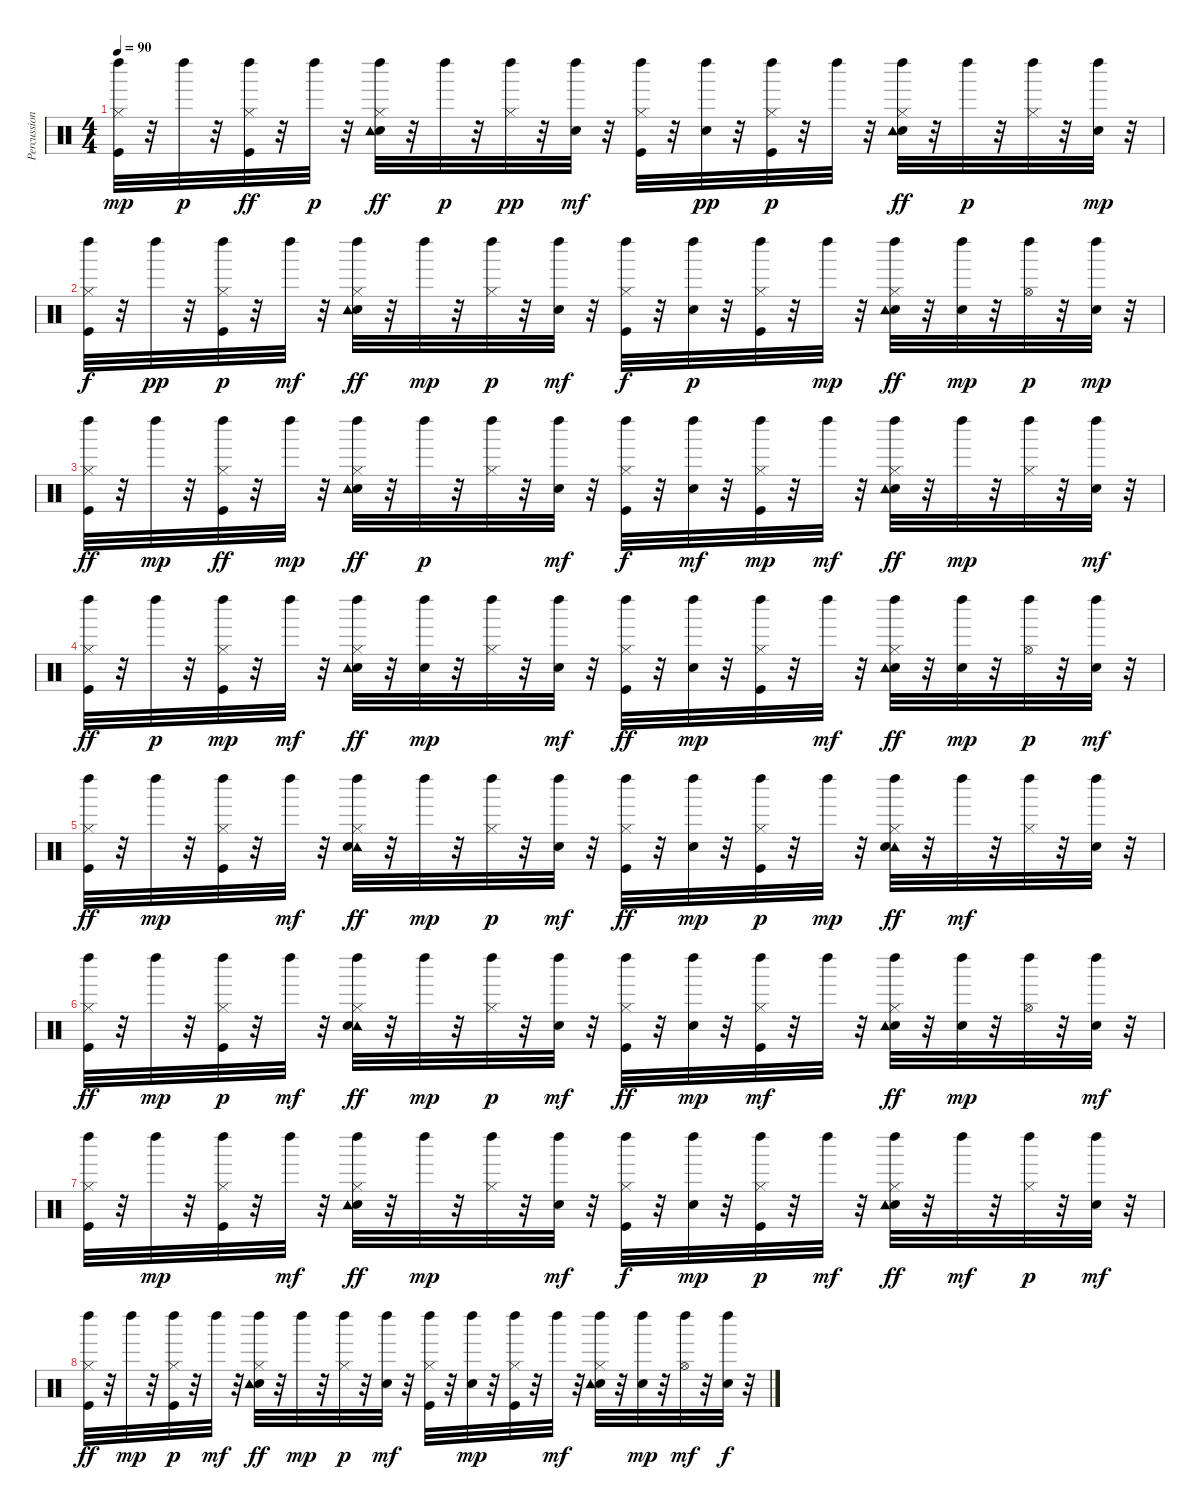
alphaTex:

\track ("Percussions" "Percussion") {instrument percussion}
\staff {score}
\articulation defaults
\ts (4 4)
\tempo 90
\clef neutral
\ks c
("Hi-Hat (closed)" "Kick (hit)" "Left Maraca (hit)").32{dy mp} r.32 "Left Maraca (hit)".32{dy p} r.32 ("Hi-Hat (closed)" "Left Maraca (hit)" "Kick (hit)").32{dy ff} r.32 "Left Maraca (hit)".32{dy p} r.32 ("Electric Snare (hit)" "Tambourine (hit)" "Left Maraca (hit)" "Hi-Hat (closed)").32{dy ff} r.32 "Left Maraca (hit)".32{dy p} r.32 ("Left Maraca (hit)" "Hi-Hat (closed)").32{dy pp} r.32 ("Left Maraca (hit)" "Electric Snare (hit)").32{dy mf} r.32 ("Left Maraca (hit)" "Hi-Hat (closed)" "Kick (hit)").32 r.32 ("Electric Snare (hit)" "Left Maraca (hit)").32{dy pp} r.32 ("Hi-Hat (closed)" "Kick (hit)" "Left Maraca (hit)").32{dy p} r.32 "Left Maraca (hit)".32 r.32 ("Electric Snare (hit)" "Tambourine (hit)" "Hi-Hat (closed)" "Left Maraca (hit)").32{dy ff} r.32 "Left Maraca (hit)".32{dy p} r.32 ("Hi-Hat (closed)" "Left Maraca (hit)").32 r.32 ("Electric Snare (hit)" "Left Maraca (hit)").32{dy mp} r.32 |
("Hi-Hat (closed)" "Kick (hit)" "Left Maraca (hit)").32{dy f} r.32 "Left Maraca (hit)".32{dy pp} r.32 ("Kick (hit)" "Left Maraca (hit)" "Hi-Hat (closed)").32{dy p} r.32 "Left Maraca (hit)".32{dy mf} r.32 ("Electric Snare (hit)" "Tambourine (hit)" "Left Maraca (hit)" "Hi-Hat (closed)").32{dy ff} r.32 "Left Maraca (hit)".32{dy mp} r.32 ("Hi-Hat (closed)" "Left Maraca (hit)").32{dy p} r.32 ("Electric Snare (hit)" "Left Maraca (hit)").32{dy mf} r.32 ("Hi-Hat (closed)" "Kick (hit)" "Left Maraca (hit)").32{dy f} r.32 ("Electric Snare (hit)" "Left Maraca (hit)").32{dy p} r.32 ("Kick (hit)" "Hi-Hat (closed)" "Left Maraca (hit)").32 r.32 "Left Maraca (hit)".32{dy mp} r.32 ("Electric Snare (hit)" "Tambourine (hit)" "Left Maraca (hit)" "Hi-Hat (closed)").32{dy ff} r.32 ("Electric Snare (hit)" "Left Maraca (hit)").32{dy mp} r.32 ("Hi-Hat (open)" "Left Maraca (hit)").32{dy p} r.32 ("Electric Snare (hit)" "Left Maraca (hit)").32{dy mp} r.32 |
("Left Maraca (hit)" "Hi-Hat (closed)" "Kick (hit)").32{dy ff} r.32 "Left Maraca (hit)".32{dy mp} r.32 ("Hi-Hat (closed)" "Left Maraca (hit)" "Kick (hit)").32{dy ff} r.32 "Left Maraca (hit)".32{dy mp} r.32 ("Hi-Hat (closed)" "Electric Snare (hit)" "Tambourine (hit)" "Left Maraca (hit)").32{dy ff} r.32 "Left Maraca (hit)".32{dy p} r.32 ("Hi-Hat (closed)" "Left Maraca (hit)").32 r.32 ("Electric Snare (hit)" "Left Maraca (hit)").32{dy mf} r.32 ("Kick (hit)" "Hi-Hat (closed)" "Left Maraca (hit)").32{dy f} r.32 ("Left Maraca (hit)" "Electric Snare (hit)").32{dy mf} r.32 ("Hi-Hat (closed)" "Kick (hit)" "Left Maraca (hit)").32{dy mp} r.32 "Left Maraca (hit)".32{dy mf} r.32 ("Hi-Hat (closed)" "Electric Snare (hit)" "Tambourine (hit)" "Left Maraca (hit)").32{dy ff} r.32 "Left Maraca (hit)".32{dy mp} r.32 ("Hi-Hat (closed)" "Left Maraca (hit)").32 r.32 ("Electric Snare (hit)" "Left Maraca (hit)").32{dy mf} r.32 |
("Kick (hit)" "Left Maraca (hit)" "Hi-Hat (closed)").32{dy ff} r.32 "Left Maraca (hit)".32{dy p} r.32 ("Kick (hit)" "Left Maraca (hit)" "Hi-Hat (closed)").32{dy mp} r.32 "Left Maraca (hit)".32{dy mf} r.32 ("Electric Snare (hit)" "Tambourine (hit)" "Hi-Hat (closed)" "Left Maraca (hit)").32{dy ff} r.32 ("Electric Snare (hit)" "Left Maraca (hit)").32{dy mp} r.32 ("Hi-Hat (closed)" "Left Maraca (hit)").32 r.32 ("Electric Snare (hit)" "Left Maraca (hit)").32{dy mf} r.32 ("Kick (hit)" "Hi-Hat (closed)" "Left Maraca (hit)").32{dy ff} r.32 ("Electric Snare (hit)" "Left Maraca (hit)").32{dy mp} r.32 ("Kick (hit)" "Left Maraca (hit)" "Hi-Hat (closed)").32 r.32 "Left Maraca (hit)".32{dy mf} r.32 ("Hi-Hat (closed)" "Electric Snare (hit)" "Tambourine (hit)" "Left Maraca (hit)").32{dy ff} r.32 ("Electric Snare (hit)" "Left Maraca (hit)").32{dy mp} r.32 ("Hi-Hat (open)" "Left Maraca (hit)").32{dy p} r.32 ("Electric Snare (hit)" "Left Maraca (hit)").32{dy mf} r.32 |
("Hi-Hat (closed)" "Left Maraca (hit)" "Kick (hit)").32{dy ff} r.32 "Left Maraca (hit)".32{dy mp} r.32 ("Hi-Hat (closed)" "Kick (hit)" "Left Maraca (hit)").32 r.32 "Left Maraca (hit)".32{dy mf} r.32 ("Tambourine (hit)" "Hi-Hat (closed)" "Electric Snare (hit)" "Left Maraca (hit)").32{dy ff} r.32 "Left Maraca (hit)".32{dy mp} r.32 ("Hi-Hat (closed)" "Left Maraca (hit)").32{dy p} r.32 ("Left Maraca (hit)" "Electric Snare (hit)").32{dy mf} r.32 ("Kick (hit)" "Hi-Hat (closed)" "Left Maraca (hit)").32{dy ff} r.32 ("Electric Snare (hit)" "Left Maraca (hit)").32{dy mp} r.32 ("Hi-Hat (closed)" "Kick (hit)" "Left Maraca (hit)").32{dy p} r.32 "Left Maraca (hit)".32{dy mp} r.32 ("Tambourine (hit)" "Hi-Hat (closed)" "Electric Snare (hit)" "Left Maraca (hit)").32{dy ff} r.32 "Left Maraca (hit)".32{dy mf} r.32 ("Left Maraca (hit)" "Hi-Hat (closed)").32 r.32 ("Left Maraca (hit)" "Electric Snare (hit)").32 r.32 |
("Kick (hit)" "Hi-Hat (closed)" "Left Maraca (hit)").32{dy ff} r.32 "Left Maraca (hit)".32{dy mp} r.32 ("Kick (hit)" "Hi-Hat (closed)" "Left Maraca (hit)").32{dy p} r.32 "Left Maraca (hit)".32{dy mf} r.32 ("Tambourine (hit)" "Electric Snare (hit)" "Hi-Hat (closed)" "Left Maraca (hit)").32{dy ff} r.32 "Left Maraca (hit)".32{dy mp} r.32 ("Hi-Hat (closed)" "Left Maraca (hit)").32{dy p} r.32 ("Electric Snare (hit)" "Left Maraca (hit)").32{dy mf} r.32 ("Hi-Hat (closed)" "Kick (hit)" "Left Maraca (hit)").32{dy ff} r.32 ("Electric Snare (hit)" "Left Maraca (hit)").32{dy mp} r.32 ("Hi-Hat (closed)" "Kick (hit)" "Left Maraca (hit)").32{dy mf} r.32 "Left Maraca (hit)".32 r.32 ("Hi-Hat (closed)" "Electric Snare (hit)" "Tambourine (hit)" "Left Maraca (hit)").32{dy ff} r.32 ("Electric Snare (hit)" "Left Maraca (hit)").32{dy mp} r.32 ("Hi-Hat (open)" "Left Maraca (hit)").32 r.32 ("Electric Snare (hit)" "Left Maraca (hit)").32{dy mf} r.32 |
("Left Maraca (hit)" "Kick (hit)" "Hi-Hat (closed)").32 r.32 "Left Maraca (hit)".32{dy mp} r.32 ("Kick (hit)" "Hi-Hat (closed)" "Left Maraca (hit)").32 r.32 "Left Maraca (hit)".32{dy mf} r.32 ("Electric Snare (hit)" "Hi-Hat (closed)" "Tambourine (hit)" "Left Maraca (hit)").32{dy ff} r.32 "Left Maraca (hit)".32{dy mp} r.32 ("Hi-Hat (closed)" "Left Maraca (hit)").32 r.32 ("Electric Snare (hit)" "Left Maraca (hit)").32{dy mf} r.32 ("Hi-Hat (closed)" "Kick (hit)" "Left Maraca (hit)").32{dy f} r.32 ("Electric Snare (hit)" "Left Maraca (hit)").32{dy mp} r.32 ("Hi-Hat (closed)" "Kick (hit)" "Left Maraca (hit)").32{dy p} r.32 "Left Maraca (hit)".32{dy mf} r.32 ("Electric Snare (hit)" "Tambourine (hit)" "Left Maraca (hit)" "Hi-Hat (closed)").32{dy ff} r.32 "Left Maraca (hit)".32{dy mf} r.32 ("Hi-Hat (closed)" "Left Maraca (hit)").32{dy p} r.32 ("Electric Snare (hit)" "Left Maraca (hit)").32{dy mf} r.32 |
("Kick (hit)" "Left Maraca (hit)" "Hi-Hat (closed)").32{dy ff} r.32 "Left Maraca (hit)".32{dy mp} r.32 ("Kick (hit)" "Hi-Hat (closed)" "Left Maraca (hit)").32{dy p} r.32 "Left Maraca (hit)".32{dy mf} r.32 ("Left Maraca (hit)" "Hi-Hat (closed)" "Electric Snare (hit)" "Tambourine (hit)").32{dy ff} r.32 "Left Maraca (hit)".32{dy mp} r.32 ("Hi-Hat (closed)" "Left Maraca (hit)").32{dy p} r.32 ("Electric Snare (hit)" "Left Maraca (hit)").32{dy mf} r.32 ("Kick (hit)" "Left Maraca (hit)" "Hi-Hat (closed)").32 r.32 ("Electric Snare (hit)" "Left Maraca (hit)").32{dy mp} r.32 ("Hi-Hat (closed)" "Kick (hit)" "Left Maraca (hit)").32 r.32 "Left Maraca (hit)".32{dy mf} r.32 ("Hi-Hat (closed)" "Electric Snare (hit)" "Tambourine (hit)" "Left Maraca (hit)").32 r.32 ("Electric Snare (hit)" "Left Maraca (hit)").32{dy mp} r.32 ("Hi-Hat (open)" "Left Maraca (hit)").32{dy mf} r.32 ("Electric Snare (hit)" "Left Maraca (hit)").32{dy f} r.32
